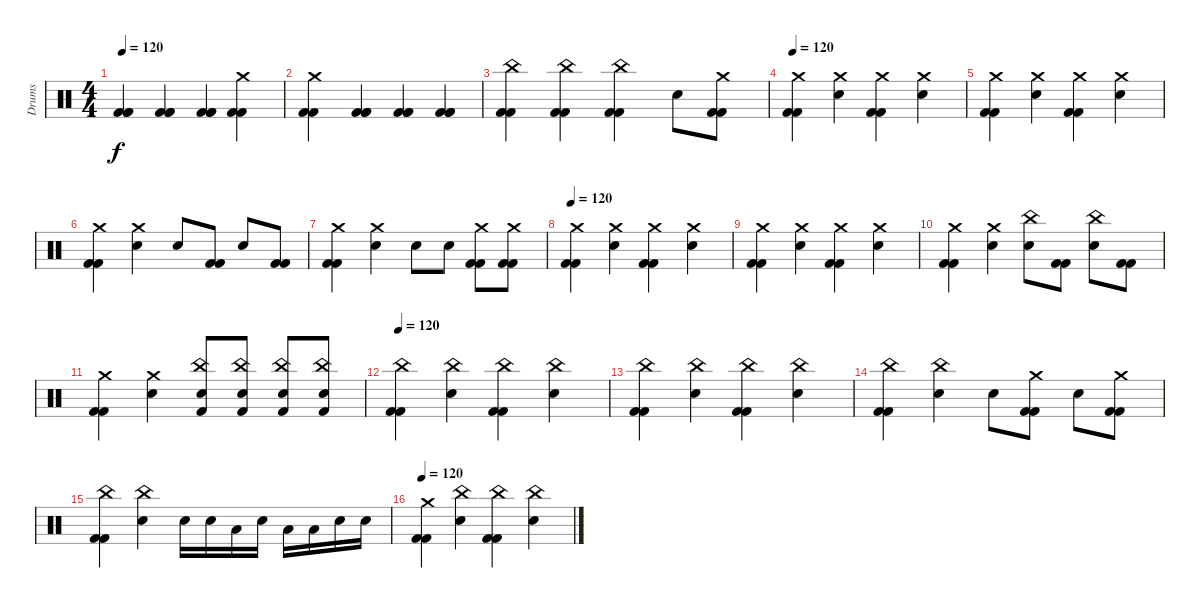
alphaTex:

\track ("Drums" "Drums") {instrument percussion}
\staff {score}
\articulation defaults
\ts (4 4)
\tempo 120
\clef neutral
\ks c
("Kick (hit) 2" "Kick (hit) 2" "Kick (hit) 2").4{dy f} ("Kick (hit) 2" "Kick (hit) 2" "Kick (hit) 2").4 ("Kick (hit) 2" "Kick (hit) 2" "Kick (hit) 2").4 ("Crash medium (hit)" "Kick (hit) 2" "Kick (hit) 2").4 |
("Crash medium (hit)" "Kick (hit) 2" "Kick (hit) 2").4 ("Kick (hit) 2" "Kick (hit) 2" "Kick (hit) 2").4 ("Kick (hit) 2" "Kick (hit) 2" "Kick (hit) 2").4 ("Kick (hit) 2" "Kick (hit) 2" "Kick (hit) 2").4 |
("China (hit)" "Kick (hit) 2" "Kick (hit) 2").4 ("China (hit)" "Kick (hit) 2" "Kick (hit) 2").4 ("China (hit)" "Kick (hit) 2" "Kick (hit) 2").4 "Electric Snare (hit)".8 ("Crash medium (hit)" "Kick (hit) 2" "Kick (hit) 2").8 |
\tempo 120
("Crash medium (hit)" "Kick (hit) 2" "Kick (hit) 2").4 ("Electric Snare (hit)" "Crash medium (hit)").4 ("Crash medium (hit)" "Kick (hit) 2" "Kick (hit) 2").4 ("Electric Snare (hit)" "Crash medium (hit)").4 |
("Crash medium (hit)" "Kick (hit) 2" "Kick (hit) 2").4 ("Electric Snare (hit)" "Crash medium (hit)").4 ("Crash medium (hit)" "Kick (hit) 2" "Kick (hit) 2").4 ("Electric Snare (hit)" "Crash medium (hit)").4 |
("Crash medium (hit)" "Kick (hit) 2" "Kick (hit) 2").4 ("Electric Snare (hit)" "Crash medium (hit)").4 "Electric Snare (hit)".8 ("Kick (hit) 2" "Kick (hit) 2").8 "Electric Snare (hit)".8 ("Kick (hit) 2" "Kick (hit) 2").8 |
("Crash medium (hit)" "Kick (hit) 2" "Kick (hit) 2").4 ("Electric Snare (hit)" "Crash medium (hit)").4 "Electric Snare (hit)".8 "Electric Snare (hit)".8 ("Kick (hit) 2" "Crash medium (hit)" "Kick (hit) 2").8 ("Crash medium (hit)" "Kick (hit) 2" "Kick (hit) 2").8 |
\tempo 120
("Crash medium (hit)" "Kick (hit) 2" "Kick (hit) 2").4 ("Electric Snare (hit)" "Crash medium (hit)").4 ("Crash medium (hit)" "Kick (hit) 2" "Kick (hit) 2").4 ("Electric Snare (hit)" "Crash medium (hit)").4 |
("Crash medium (hit)" "Kick (hit) 2" "Kick (hit) 2").4 ("Electric Snare (hit)" "Crash medium (hit)").4 ("Crash medium (hit)" "Kick (hit) 2" "Kick (hit) 2").4 ("Electric Snare (hit)" "Crash medium (hit)").4 |
("Crash medium (hit)" "Kick (hit) 2" "Kick (hit) 2").4 ("Electric Snare (hit)" "Crash medium (hit)").4 ("China (hit)" "Electric Snare (hit)").8 ("Kick (hit) 2" "Kick (hit) 2").8 ("Electric Snare (hit)" "China (hit)").8 ("Kick (hit) 2" "Kick (hit) 2").8 |
("Crash medium (hit)" "Kick (hit) 2" "Kick (hit) 2").4 ("Electric Snare (hit)" "Crash medium (hit)").4 ("Electric Snare (hit)" "China (hit)" "Kick (hit) 2").8 ("Electric Snare (hit)" "China (hit)" "Kick (hit) 2").8 ("Electric Snare (hit)" "China (hit)" "Kick (hit) 2").8 ("Kick (hit) 2" "China (hit)" "Electric Snare (hit)").8 |
\tempo 120
("China (hit)" "Kick (hit) 2" "Kick (hit) 2").4 ("Electric Snare (hit)" "China (hit)").4 ("China (hit)" "Kick (hit) 2" "Kick (hit) 2").4 ("Electric Snare (hit)" "China (hit)").4 |
("China (hit)" "Kick (hit) 2" "Kick (hit) 2").4 ("Electric Snare (hit)" "China (hit)").4 ("China (hit)" "Kick (hit) 2" "Kick (hit) 2").4 ("Electric Snare (hit)" "China (hit)").4 |
("China (hit)" "Kick (hit) 2" "Kick (hit) 2").4 ("Electric Snare (hit)" "China (hit)").4 "Electric Snare (hit)".8 ("Crash medium (hit)" "Kick (hit) 2" "Kick (hit) 2").8 "Electric Snare (hit)".8 ("Crash medium (hit)" "Kick (hit) 2" "Kick (hit) 2").8 |
("China (hit)" "Kick (hit) 2" "Kick (hit) 2").4 ("Electric Snare (hit)" "China (hit)").4 "Electric Snare (hit)".16 "Electric Snare (hit)".16 "Low Tom (hit)".16 "Electric Snare (hit)".16 "Low Tom (hit)".16 "Low Tom (hit)".16 "Electric Snare (hit)".16 "Electric Snare (hit)".16 |
\tempo 120
("Crash medium (hit)" "Kick (hit) 2" "Kick (hit) 2").4 ("Electric Snare (hit)" "China (hit)").4 ("China (hit)" "Kick (hit) 2" "Kick (hit) 2").4 ("Electric Snare (hit)" "China (hit)").4
